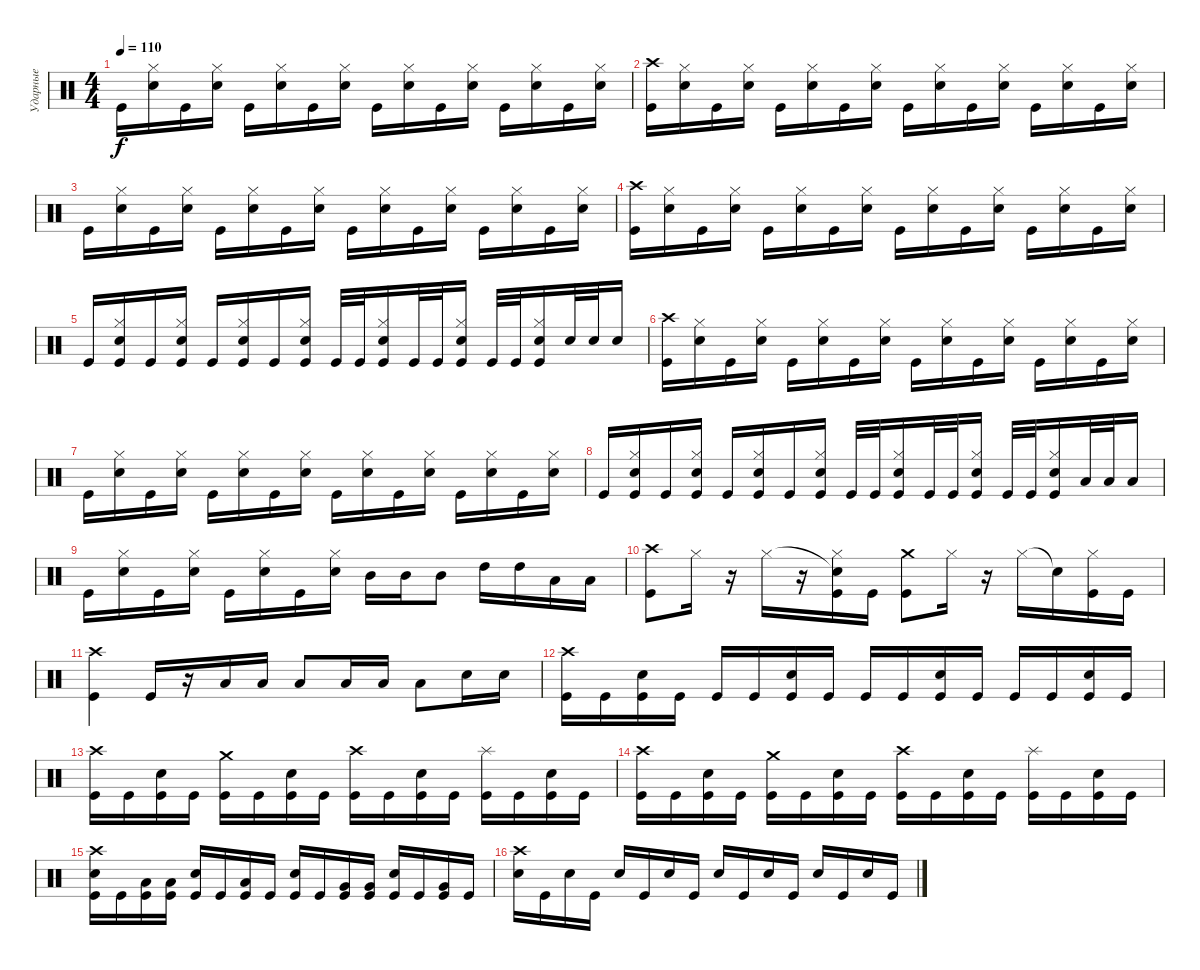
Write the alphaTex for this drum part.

\track ("Ударные" "Ударные") {instrument percussion}
\staff {score}
\articulation defaults
\ts (4 4)
\tempo 110
\clef neutral
\ks c "Kick (hit)".16{dy f}
("Hi-Hat (closed)" "Electric Snare (hit)").16 "Kick (hit)".16 ("Hi-Hat (closed)" "Electric Snare (hit)").16 "Kick (hit)".16 ("Hi-Hat (closed)" "Electric Snare (hit)").16 "Kick (hit)".16 ("Hi-Hat (closed)" "Electric Snare (hit)").16 "Kick (hit)".16 ("Hi-Hat (closed)" "Electric Snare (hit)").16 "Kick (hit)".16 ("Hi-Hat (closed)" "Electric Snare (hit)").16 "Kick (hit)".16 ("Hi-Hat (closed)" "Electric Snare (hit)").16 "Kick (hit)".16 ("Hi-Hat (closed)" "Electric Snare (hit)").16 |
("Crash high (hit)" "Kick (hit)").16 ("Hi-Hat (closed)" "Electric Snare (hit)").16 "Kick (hit)".16 ("Hi-Hat (closed)" "Electric Snare (hit)").16 "Kick (hit)".16 ("Hi-Hat (closed)" "Electric Snare (hit)").16 "Kick (hit)".16 ("Hi-Hat (closed)" "Electric Snare (hit)").16 "Kick (hit)".16 ("Hi-Hat (closed)" "Electric Snare (hit)").16 "Kick (hit)".16 ("Hi-Hat (closed)" "Electric Snare (hit)").16 "Kick (hit)".16 ("Hi-Hat (closed)" "Electric Snare (hit)").16 "Kick (hit)".16 ("Hi-Hat (closed)" "Electric Snare (hit)").16 |
"Kick (hit)".16 ("Hi-Hat (closed)" "Electric Snare (hit)").16 "Kick (hit)".16 ("Hi-Hat (closed)" "Electric Snare (hit)").16 "Kick (hit)".16 ("Hi-Hat (closed)" "Electric Snare (hit)").16 "Kick (hit)".16 ("Hi-Hat (closed)" "Electric Snare (hit)").16 "Kick (hit)".16 ("Hi-Hat (closed)" "Electric Snare (hit)").16 "Kick (hit)".16 ("Hi-Hat (closed)" "Electric Snare (hit)").16 "Kick (hit)".16 ("Hi-Hat (closed)" "Electric Snare (hit)").16 "Kick (hit)".16 ("Hi-Hat (closed)" "Electric Snare (hit)").16 |
("Crash high (hit)" "Kick (hit)").16 ("Hi-Hat (closed)" "Electric Snare (hit)").16 "Kick (hit)".16 ("Hi-Hat (closed)" "Electric Snare (hit)").16 "Kick (hit)".16 ("Hi-Hat (closed)" "Electric Snare (hit)").16 "Kick (hit)".16 ("Hi-Hat (closed)" "Electric Snare (hit)").16 "Kick (hit)".16 ("Hi-Hat (closed)" "Electric Snare (hit)").16 "Kick (hit)".16 ("Hi-Hat (closed)" "Electric Snare (hit)").16 "Kick (hit)".16 ("Hi-Hat (closed)" "Electric Snare (hit)").16 "Kick (hit)".16 ("Hi-Hat (closed)" "Electric Snare (hit)").16 |
"Kick (hit)".16 ("Hi-Hat (closed)" "Electric Snare (hit)" "Kick (hit)").16 "Kick (hit)".16 ("Hi-Hat (closed)" "Electric Snare (hit)" "Kick (hit)").16 "Kick (hit)".16 ("Hi-Hat (closed)" "Electric Snare (hit)" "Kick (hit)").16 "Kick (hit)".16 ("Hi-Hat (closed)" "Electric Snare (hit)" "Kick (hit)").16 "Kick (hit)".32 "Kick (hit)".32 ("Hi-Hat (closed)" "Electric Snare (hit)" "Kick (hit)").16 "Kick (hit)".32 "Kick (hit)".32 ("Hi-Hat (closed)" "Electric Snare (hit)" "Kick (hit)").16 "Kick (hit)".32 "Kick (hit)".32 ("Hi-Hat (closed)" "Electric Snare (hit)" "Kick (hit)").16 "Electric Snare (hit)".32 "Electric Snare (hit)".32 "Electric Snare (hit)".16 |
("Crash high (hit)" "Kick (hit)").16 ("Hi-Hat (closed)" "Electric Snare (hit)").16 "Kick (hit)".16 ("Hi-Hat (closed)" "Electric Snare (hit)").16 "Kick (hit)".16 ("Hi-Hat (closed)" "Electric Snare (hit)").16 "Kick (hit)".16 ("Hi-Hat (closed)" "Electric Snare (hit)").16 "Kick (hit)".16 ("Hi-Hat (closed)" "Electric Snare (hit)").16 "Kick (hit)".16 ("Hi-Hat (closed)" "Electric Snare (hit)").16 "Kick (hit)".16 ("Hi-Hat (closed)" "Electric Snare (hit)").16 "Kick (hit)".16 ("Hi-Hat (closed)" "Electric Snare (hit)").16 |
"Kick (hit)".16 ("Hi-Hat (closed)" "Electric Snare (hit)").16 "Kick (hit)".16 ("Hi-Hat (closed)" "Electric Snare (hit)").16 "Kick (hit)".16 ("Hi-Hat (closed)" "Electric Snare (hit)").16 "Kick (hit)".16 ("Hi-Hat (closed)" "Electric Snare (hit)").16 "Kick (hit)".16 ("Hi-Hat (closed)" "Electric Snare (hit)").16 "Kick (hit)".16 ("Hi-Hat (closed)" "Electric Snare (hit)").16 "Kick (hit)".16 ("Hi-Hat (closed)" "Electric Snare (hit)").16 "Kick (hit)".16 ("Hi-Hat (closed)" "Electric Snare (hit)").16 |
"Kick (hit)".16 ("Hi-Hat (closed)" "Electric Snare (hit)" "Kick (hit)").16 "Kick (hit)".16 ("Hi-Hat (closed)" "Electric Snare (hit)" "Kick (hit)").16 "Kick (hit)".16 ("Hi-Hat (closed)" "Electric Snare (hit)" "Kick (hit)").16 "Kick (hit)".16 ("Hi-Hat (closed)" "Electric Snare (hit)" "Kick (hit)").16 "Kick (hit)".32 "Kick (hit)".32 ("Hi-Hat (closed)" "Electric Snare (hit)" "Kick (hit)").16 "Kick (hit)".32 "Kick (hit)".32 ("Hi-Hat (closed)" "Electric Snare (hit)" "Kick (hit)").16 "Kick (hit)".32 "Kick (hit)".32 ("Hi-Hat (closed)" "Electric Snare (hit)" "Kick (hit)").16 "Low Tom (hit)".32 "Low Tom (hit)".32 "Low Tom (hit)".16 |
"Kick (hit)".16 ("Hi-Hat (closed)" "Electric Snare (hit)").16 "Kick (hit)".16 ("Hi-Hat (closed)" "Electric Snare (hit)").16 "Kick (hit)".16 ("Hi-Hat (closed)" "Electric Snare (hit)").16 "Kick (hit)".16 ("Hi-Hat (closed)" "Electric Snare (hit)").16 "Mid Tom (hit)".16 "Mid Tom (hit)".16 "Mid Tom (hit)".8 "High Tom (hit)".16 "High Tom (hit)".16 "Low Tom (hit)".16 "Low Tom (hit)".16 |
("Crash high (hit)" "Kick (hit)").8 "Hi-Hat (closed)".16 r.16 "Hi-Hat (closed)".16 r.16 ("Snare (hit)"{t} "Hi-Hat (closed)" "Kick (hit)").16 "Kick (hit)".16 ("Crash medium (hit)" "Kick (hit)").8 "Hi-Hat (closed)".16 r.16 "Hi-Hat (closed)".16 "Snare (hit)"{t}.16 ("Hi-Hat (closed)" "Kick (hit)").16 "Kick (hit)".16 |
("Crash high (hit)" "Kick (hit)").4 "Kick (hit)".16 r.16 "Low Tom (hit)".16 "Low Tom (hit)".16 "Low Tom (hit)".8 "Low Tom (hit)".16 "Low Tom (hit)".16 "Low Tom (hit)".8 "Electric Snare (hit)".16 "Electric Snare (hit)".16 |
("Crash high (hit)" "Kick (hit)").16 "Kick (hit)".16 ("Electric Snare (hit)" "Kick (hit)").16 "Kick (hit)".16 "Kick (hit)".16 "Kick (hit)".16 ("Electric Snare (hit)" "Kick (hit)").16 "Kick (hit)".16 "Kick (hit)".16 "Kick (hit)".16 ("Electric Snare (hit)" "Kick (hit)").16 "Kick (hit)".16 "Kick (hit)".16 "Kick (hit)".16 ("Electric Snare (hit)" "Kick (hit)").16 "Kick (hit)".16 |
("Crash high (hit)" "Kick (hit)").16 "Kick (hit)".16 ("Electric Snare (hit)" "Kick (hit)").16 "Kick (hit)".16 ("Crash medium (hit)" "Kick (hit)").16 "Kick (hit)".16 ("Electric Snare (hit)" "Kick (hit)").16 "Kick (hit)".16 ("Crash high (hit)" "Kick (hit)").16 "Kick (hit)".16 ("Electric Snare (hit)" "Kick (hit)").16 "Kick (hit)".16 ("Splash (hit)" "Kick (hit)").16 "Kick (hit)".16 ("Electric Snare (hit)" "Kick (hit)").16 "Kick (hit)".16 |
("Crash high (hit)" "Kick (hit)").16 "Kick (hit)".16 ("Electric Snare (hit)" "Kick (hit)").16 "Kick (hit)".16 ("Crash medium (hit)" "Kick (hit)").16 "Kick (hit)".16 ("Electric Snare (hit)" "Kick (hit)").16 "Kick (hit)".16 ("Crash high (hit)" "Kick (hit)").16 "Kick (hit)".16 ("Electric Snare (hit)" "Kick (hit)").16 "Kick (hit)".16 ("Splash (hit)" "Kick (hit)").16 "Kick (hit)".16 ("Electric Snare (hit)" "Kick (hit)").16 "Kick (hit)".16 |
("Crash high (hit)" "Electric Snare (hit)" "Kick (hit)").16 "Kick (hit)".16 ("Low Tom (hit)" "Kick (hit)").16 ("Low Tom (hit)" "Kick (hit)").16 ("Electric Snare (hit)" "Kick (hit)").16 "Kick (hit)".16 ("Low Tom (hit)" "Kick (hit)").16 "Kick (hit)".16 ("Electric Snare (hit)" "Kick (hit)").16 "Kick (hit)".16 ("Very Low Tom (hit)" "Kick (hit)").16 ("Very Low Tom (hit)" "Kick (hit)").16 ("Electric Snare (hit)" "Kick (hit)").16 "Kick (hit)".16 ("Very Low Tom (hit)" "Kick (hit)").16 "Kick (hit)".16 |
("Crash high (hit)" "Electric Snare (hit)").16 "Kick (hit)".16 "Electric Snare (hit)".16 "Kick (hit)".16 "Electric Snare (hit)".16 "Kick (hit)".16 "Electric Snare (hit)".16 "Kick (hit)".16 "Electric Snare (hit)".16 "Kick (hit)".16 "Electric Snare (hit)".16 "Kick (hit)".16 "Electric Snare (hit)".16 "Kick (hit)".16 "Electric Snare (hit)".16 "Kick (hit)".16
